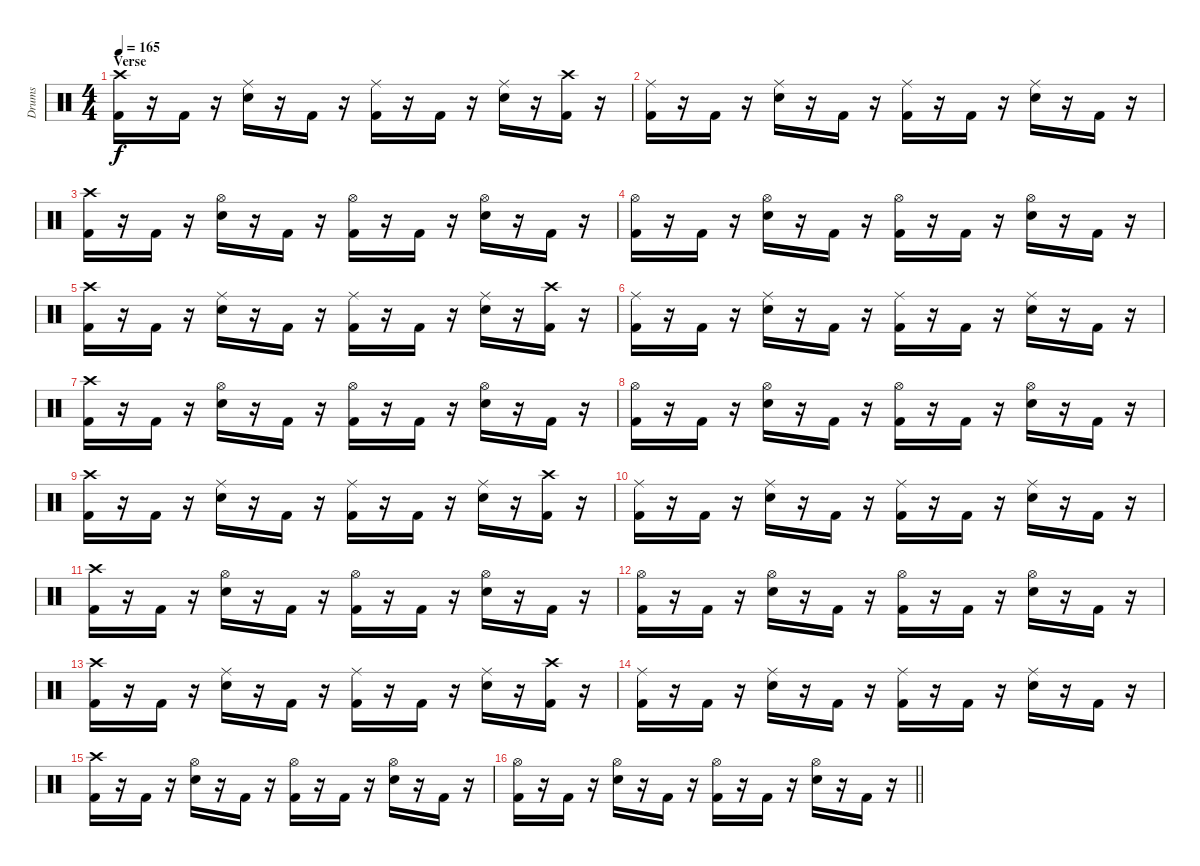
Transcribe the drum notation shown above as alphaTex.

\track ("Drums" "Drums") {instrument percussion}
\staff {score}
\articulation defaults
\ts (4 4)
\section ("" "Verse")
\tempo 165
\clef neutral
\ks c
("Crash high (hit)" "Kick (hit) 2").16{dy f} r.16 "Kick (hit) 2".16 r.16 ("Ride (middle)" "Snare (hit) 2").16 r.16 "Kick (hit) 2".16 r.16 ("Ride (middle)" "Kick (hit) 2").16 r.16 "Kick (hit) 2".16 r.16 ("Ride (middle)" "Snare (hit) 2").16 r.16 ("Crash high (hit)" "Kick (hit) 2").16 r.16 |
("Ride (middle)" "Kick (hit) 2").16 r.16 "Kick (hit) 2".16 r.16 ("Ride (middle)" "Snare (hit) 2").16 r.16 "Kick (hit) 2".16 r.16 ("Ride (middle)" "Kick (hit) 2").16 r.16 "Kick (hit) 2".16 r.16 ("Ride (middle)" "Snare (hit) 2").16 r.16 "Kick (hit) 2".16 r.16 |
("Crash high (hit)" "Kick (hit) 2").16 r.16 "Kick (hit) 2".16 r.16 ("Hi-Hat (open)" "Snare (hit) 2").16 r.16 "Kick (hit) 2".16 r.16 ("Hi-Hat (open)" "Kick (hit) 2").16 r.16 "Kick (hit) 2".16 r.16 ("Hi-Hat (open)" "Snare (hit) 2").16 r.16 "Kick (hit) 2".16 r.16 |
("Hi-Hat (open)" "Kick (hit) 2").16 r.16 "Kick (hit) 2".16 r.16 ("Hi-Hat (open)" "Snare (hit) 2").16 r.16 "Kick (hit) 2".16 r.16 ("Hi-Hat (open)" "Kick (hit) 2").16 r.16 "Kick (hit) 2".16 r.16 ("Hi-Hat (open)" "Snare (hit) 2").16 r.16 "Kick (hit) 2".16 r.16 |
("Crash high (hit)" "Kick (hit) 2").16 r.16 "Kick (hit) 2".16 r.16 ("Ride (middle)" "Snare (hit) 2").16 r.16 "Kick (hit) 2".16 r.16 ("Ride (middle)" "Kick (hit) 2").16 r.16 "Kick (hit) 2".16 r.16 ("Ride (middle)" "Snare (hit) 2").16 r.16 ("Crash high (hit)" "Kick (hit) 2").16 r.16 |
("Ride (middle)" "Kick (hit) 2").16 r.16 "Kick (hit) 2".16 r.16 ("Ride (middle)" "Snare (hit) 2").16 r.16 "Kick (hit) 2".16 r.16 ("Ride (middle)" "Kick (hit) 2").16 r.16 "Kick (hit) 2".16 r.16 ("Ride (middle)" "Snare (hit) 2").16 r.16 "Kick (hit) 2".16 r.16 |
("Crash high (hit)" "Kick (hit) 2").16 r.16 "Kick (hit) 2".16 r.16 ("Hi-Hat (open)" "Snare (hit) 2").16 r.16 "Kick (hit) 2".16 r.16 ("Hi-Hat (open)" "Kick (hit) 2").16 r.16 "Kick (hit) 2".16 r.16 ("Hi-Hat (open)" "Snare (hit) 2").16 r.16 "Kick (hit) 2".16 r.16 |
("Hi-Hat (open)" "Kick (hit) 2").16 r.16 "Kick (hit) 2".16 r.16 ("Hi-Hat (open)" "Snare (hit) 2").16 r.16 "Kick (hit) 2".16 r.16 ("Hi-Hat (open)" "Kick (hit) 2").16 r.16 "Kick (hit) 2".16 r.16 ("Hi-Hat (open)" "Snare (hit) 2").16 r.16 "Kick (hit) 2".16 r.16 |
("Crash high (hit)" "Kick (hit) 2").16 r.16 "Kick (hit) 2".16 r.16 ("Ride (middle)" "Snare (hit) 2").16 r.16 "Kick (hit) 2".16 r.16 ("Ride (middle)" "Kick (hit) 2").16 r.16 "Kick (hit) 2".16 r.16 ("Ride (middle)" "Snare (hit) 2").16 r.16 ("Crash high (hit)" "Kick (hit) 2").16 r.16 |
("Ride (middle)" "Kick (hit) 2").16 r.16 "Kick (hit) 2".16 r.16 ("Ride (middle)" "Snare (hit) 2").16 r.16 "Kick (hit) 2".16 r.16 ("Ride (middle)" "Kick (hit) 2").16 r.16 "Kick (hit) 2".16 r.16 ("Ride (middle)" "Snare (hit) 2").16 r.16 "Kick (hit) 2".16 r.16 |
("Crash high (hit)" "Kick (hit) 2").16 r.16 "Kick (hit) 2".16 r.16 ("Hi-Hat (open)" "Snare (hit) 2").16 r.16 "Kick (hit) 2".16 r.16 ("Hi-Hat (open)" "Kick (hit) 2").16 r.16 "Kick (hit) 2".16 r.16 ("Hi-Hat (open)" "Snare (hit) 2").16 r.16 "Kick (hit) 2".16 r.16 |
("Hi-Hat (open)" "Kick (hit) 2").16 r.16 "Kick (hit) 2".16 r.16 ("Hi-Hat (open)" "Snare (hit) 2").16 r.16 "Kick (hit) 2".16 r.16 ("Hi-Hat (open)" "Kick (hit) 2").16 r.16 "Kick (hit) 2".16 r.16 ("Hi-Hat (open)" "Snare (hit) 2").16 r.16 "Kick (hit) 2".16 r.16 |
("Crash high (hit)" "Kick (hit) 2").16 r.16 "Kick (hit) 2".16 r.16 ("Ride (middle)" "Snare (hit) 2").16 r.16 "Kick (hit) 2".16 r.16 ("Ride (middle)" "Kick (hit) 2").16 r.16 "Kick (hit) 2".16 r.16 ("Ride (middle)" "Snare (hit) 2").16 r.16 ("Crash high (hit)" "Kick (hit) 2").16 r.16 |
("Ride (middle)" "Kick (hit) 2").16 r.16 "Kick (hit) 2".16 r.16 ("Ride (middle)" "Snare (hit) 2").16 r.16 "Kick (hit) 2".16 r.16 ("Ride (middle)" "Kick (hit) 2").16 r.16 "Kick (hit) 2".16 r.16 ("Ride (middle)" "Snare (hit) 2").16 r.16 "Kick (hit) 2".16 r.16 |
("Crash high (hit)" "Kick (hit) 2").16 r.16 "Kick (hit) 2".16 r.16 ("Hi-Hat (open)" "Snare (hit) 2").16 r.16 "Kick (hit) 2".16 r.16 ("Hi-Hat (open)" "Kick (hit) 2").16 r.16 "Kick (hit) 2".16 r.16 ("Hi-Hat (open)" "Snare (hit) 2").16 r.16 "Kick (hit) 2".16 r.16 |
\barLineRight lightlight
("Hi-Hat (open)" "Kick (hit) 2").16 r.16 "Kick (hit) 2".16 r.16 ("Hi-Hat (open)" "Snare (hit) 2").16 r.16 "Kick (hit) 2".16 r.16 ("Hi-Hat (open)" "Kick (hit) 2").16 r.16 "Kick (hit) 2".16 r.16 ("Hi-Hat (open)" "Snare (hit) 2").16 r.16 "Kick (hit) 2".16 r.16
